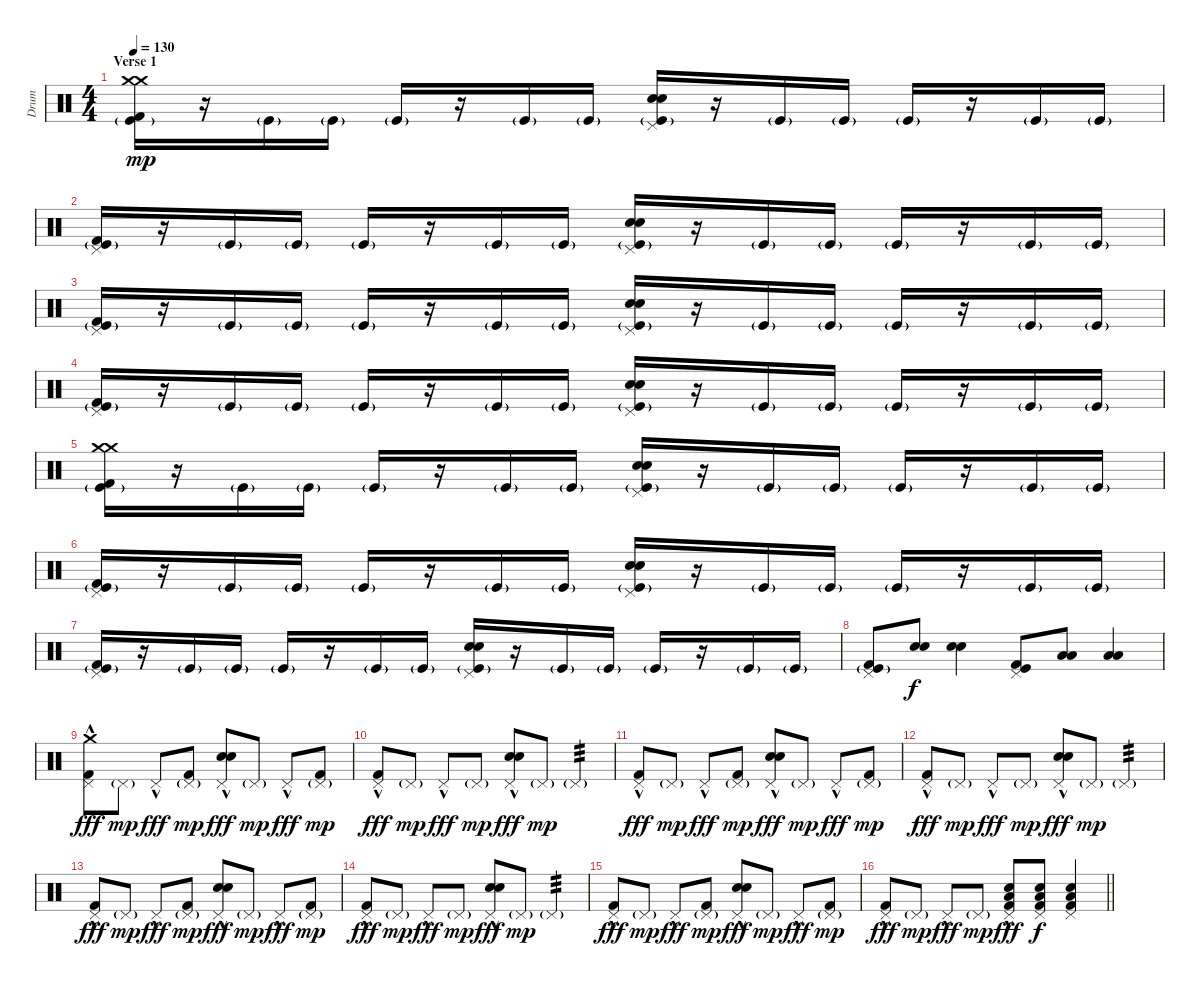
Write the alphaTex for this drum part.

\track ("Drum" "Drum") {instrument percussion}
\staff {score}
\articulation defaults
\ts (4 4)
\section ("" "Verse 1")
\tempo 130
\clef neutral
\ks c
("Crash medium (hit)" "Crash medium (hit)" "Kick (hit) 2" "Kick (hit)"{g}).16{dy mp} r.16 "Kick (hit)"{g}.16 "Kick (hit)"{g}.16 "Kick (hit)"{g}.16 r.16 "Kick (hit)"{g}.16 "Kick (hit)"{g}.16 ("Pedal Hi-Hat (hit)" "Electric Snare (hit)" "Electric Snare (hit)" "Kick (hit)"{g}).16 r.16 "Kick (hit)"{g}.16 "Kick (hit)"{g}.16 "Kick (hit)"{g}.16 r.16 "Kick (hit)"{g}.16 "Kick (hit)"{g}.16 |
("Pedal Hi-Hat (hit)" "Kick (hit) 2" "Kick (hit)"{g}).16 r.16 "Kick (hit)"{g}.16 "Kick (hit)"{g}.16 "Kick (hit)"{g}.16 r.16 "Kick (hit)"{g}.16 "Kick (hit)"{g}.16 ("Pedal Hi-Hat (hit)" "Electric Snare (hit)" "Electric Snare (hit)" "Kick (hit)"{g}).16 r.16 "Kick (hit)"{g}.16 "Kick (hit)"{g}.16 "Kick (hit)"{g}.16 r.16 "Kick (hit)"{g}.16 "Kick (hit)"{g}.16 |
("Pedal Hi-Hat (hit)" "Kick (hit) 2" "Kick (hit)"{g}).16 r.16 "Kick (hit)"{g}.16 "Kick (hit)"{g}.16 "Kick (hit)"{g}.16 r.16 "Kick (hit)"{g}.16 "Kick (hit)"{g}.16 ("Pedal Hi-Hat (hit)" "Electric Snare (hit)" "Electric Snare (hit)" "Kick (hit)"{g}).16 r.16 "Kick (hit)"{g}.16 "Kick (hit)"{g}.16 "Kick (hit)"{g}.16 r.16 "Kick (hit)"{g}.16 "Kick (hit)"{g}.16 |
("Pedal Hi-Hat (hit)" "Kick (hit) 2" "Kick (hit)"{g}).16 r.16 "Kick (hit)"{g}.16 "Kick (hit)"{g}.16 "Kick (hit)"{g}.16 r.16 "Kick (hit)"{g}.16 "Kick (hit)"{g}.16 ("Pedal Hi-Hat (hit)" "Electric Snare (hit)" "Electric Snare (hit)" "Kick (hit)"{g}).16 r.16 "Kick (hit)"{g}.16 "Kick (hit)"{g}.16 "Kick (hit)"{g}.16 r.16 "Kick (hit)"{g}.16 "Kick (hit)"{g}.16 |
("Crash medium (hit)" "Crash medium (hit)" "Kick (hit) 2" "Kick (hit)"{g}).16 r.16 "Kick (hit)"{g}.16 "Kick (hit)"{g}.16 "Kick (hit)"{g}.16 r.16 "Kick (hit)"{g}.16 "Kick (hit)"{g}.16 ("Pedal Hi-Hat (hit)" "Electric Snare (hit)" "Electric Snare (hit)" "Kick (hit)"{g}).16 r.16 "Kick (hit)"{g}.16 "Kick (hit)"{g}.16 "Kick (hit)"{g}.16 r.16 "Kick (hit)"{g}.16 "Kick (hit)"{g}.16 |
("Pedal Hi-Hat (hit)" "Kick (hit) 2" "Kick (hit)"{g}).16 r.16 "Kick (hit)"{g}.16 "Kick (hit)"{g}.16 "Kick (hit)"{g}.16 r.16 "Kick (hit)"{g}.16 "Kick (hit)"{g}.16 ("Pedal Hi-Hat (hit)" "Electric Snare (hit)" "Electric Snare (hit)" "Kick (hit)"{g}).16 r.16 "Kick (hit)"{g}.16 "Kick (hit)"{g}.16 "Kick (hit)"{g}.16 r.16 "Kick (hit)"{g}.16 "Kick (hit)"{g}.16 |
("Pedal Hi-Hat (hit)" "Kick (hit) 2" "Kick (hit)"{g}).16 r.16 "Kick (hit)"{g}.16 "Kick (hit)"{g}.16 "Kick (hit)"{g}.16 r.16 "Kick (hit)"{g}.16 "Kick (hit)"{g}.16 ("Pedal Hi-Hat (hit)" "Electric Snare (hit)" "Electric Snare (hit)" "Kick (hit)"{g}).16 r.16 "Kick (hit)"{g}.16 "Kick (hit)"{g}.16 "Kick (hit)"{g}.16 r.16 "Kick (hit)"{g}.16 "Kick (hit)"{g}.16 |
("Pedal Hi-Hat (hit)" "Kick (hit) 2" "Kick (hit)"{g}).8 ("Electric Snare (hit)" "Electric Snare (hit)").8{dy f} ("Electric Snare (hit)" "Electric Snare (hit)").4 ("Pedal Hi-Hat (hit)" "Kick (hit) 2" "Kick (hit)").8 ("Low Tom (hit)" "Low Floor Tom (hit)").8 ("Low Tom (hit)" "Low Floor Tom (hit)").4 |
("Crash medium (hit)" "Kick (hit) 2" "Pedal Hi-Hat (hit)"{hac}).8{dy fff} "Pedal Hi-Hat (hit)"{g}.8{dy mp} "Pedal Hi-Hat (hit)"{hac}.8{dy fff} ("Kick (hit) 2" "Pedal Hi-Hat (hit)"{g}).8{dy mp} ("Electric Snare (hit)" "Electric Snare (hit)" "Pedal Hi-Hat (hit)"{hac}).8{dy fff} "Pedal Hi-Hat (hit)"{g}.8{dy mp} "Pedal Hi-Hat (hit)"{hac}.8{dy fff} ("Kick (hit) 2" "Pedal Hi-Hat (hit)"{g}).8{dy mp} |
("Kick (hit) 2" "Pedal Hi-Hat (hit)"{hac}).8{dy fff} "Pedal Hi-Hat (hit)"{g}.8{dy mp} "Pedal Hi-Hat (hit)"{hac}.8{dy fff} "Pedal Hi-Hat (hit)"{g}.8{dy mp} ("Electric Snare (hit)" "Electric Snare (hit)" "Pedal Hi-Hat (hit)"{hac}).8{dy fff} "Pedal Hi-Hat (hit)"{g}.8{dy mp} "Pedal Hi-Hat (hit)"{g}.4{tp 3} |
("Kick (hit) 2" "Pedal Hi-Hat (hit)"{hac}).8{dy fff} "Pedal Hi-Hat (hit)"{g}.8{dy mp} "Pedal Hi-Hat (hit)"{hac}.8{dy fff} ("Kick (hit) 2" "Pedal Hi-Hat (hit)"{g}).8{dy mp} ("Electric Snare (hit)" "Electric Snare (hit)" "Pedal Hi-Hat (hit)"{hac}).8{dy fff} "Pedal Hi-Hat (hit)"{g}.8{dy mp} "Pedal Hi-Hat (hit)"{hac}.8{dy fff} ("Kick (hit) 2" "Pedal Hi-Hat (hit)"{g}).8{dy mp} |
("Kick (hit) 2" "Pedal Hi-Hat (hit)"{hac}).8{dy fff} "Pedal Hi-Hat (hit)"{g}.8{dy mp} "Pedal Hi-Hat (hit)"{hac}.8{dy fff} "Pedal Hi-Hat (hit)"{g}.8{dy mp} ("Electric Snare (hit)" "Electric Snare (hit)" "Pedal Hi-Hat (hit)"{hac}).8{dy fff} "Pedal Hi-Hat (hit)"{g}.8{dy mp} "Pedal Hi-Hat (hit)"{g}.4{tp 3} |
("Kick (hit) 2" "Pedal Hi-Hat (hit)"{hac}).8{dy fff} "Pedal Hi-Hat (hit)"{g}.8{dy mp} "Pedal Hi-Hat (hit)"{hac}.8{dy fff} ("Kick (hit) 2" "Pedal Hi-Hat (hit)"{g}).8{dy mp} ("Electric Snare (hit)" "Electric Snare (hit)" "Pedal Hi-Hat (hit)"{hac}).8{dy fff} "Pedal Hi-Hat (hit)"{g}.8{dy mp} "Pedal Hi-Hat (hit)"{hac}.8{dy fff} ("Kick (hit) 2" "Pedal Hi-Hat (hit)"{g}).8{dy mp} |
("Kick (hit) 2" "Pedal Hi-Hat (hit)"{hac}).8{dy fff} "Pedal Hi-Hat (hit)"{g}.8{dy mp} "Pedal Hi-Hat (hit)"{hac}.8{dy fff} "Pedal Hi-Hat (hit)"{g}.8{dy mp} ("Electric Snare (hit)" "Electric Snare (hit)" "Pedal Hi-Hat (hit)"{hac}).8{dy fff} "Pedal Hi-Hat (hit)"{g}.8{dy mp} "Pedal Hi-Hat (hit)"{g}.4{tp 3} |
("Kick (hit) 2" "Pedal Hi-Hat (hit)"{hac}).8{dy fff} "Pedal Hi-Hat (hit)"{g}.8{dy mp} "Pedal Hi-Hat (hit)"{hac}.8{dy fff} ("Kick (hit) 2" "Pedal Hi-Hat (hit)"{g}).8{dy mp} ("Electric Snare (hit)" "Electric Snare (hit)" "Pedal Hi-Hat (hit)"{hac}).8{dy fff} "Pedal Hi-Hat (hit)"{g}.8{dy mp} "Pedal Hi-Hat (hit)"{hac}.8{dy fff} ("Kick (hit) 2" "Pedal Hi-Hat (hit)"{g}).8{dy mp} |
\barLineRight lightlight
("Kick (hit) 2" "Pedal Hi-Hat (hit)"{hac}).8{dy fff} "Pedal Hi-Hat (hit)"{g}.8{dy mp} "Pedal Hi-Hat (hit)"{hac}.8{dy fff} "Pedal Hi-Hat (hit)"{g}.8{dy mp} ("Low Tom (hit)" "Electric Snare (hit)" "Kick (hit) 2" "Pedal Hi-Hat (hit)"{hac}).8{dy fff} ("Low Tom (hit)" "Electric Snare (hit)" "Kick (hit) 2" "Pedal Hi-Hat (hit)").8{dy f} ("Low Tom (hit)" "Electric Snare (hit)" "Kick (hit) 2" "Pedal Hi-Hat (hit)").4
